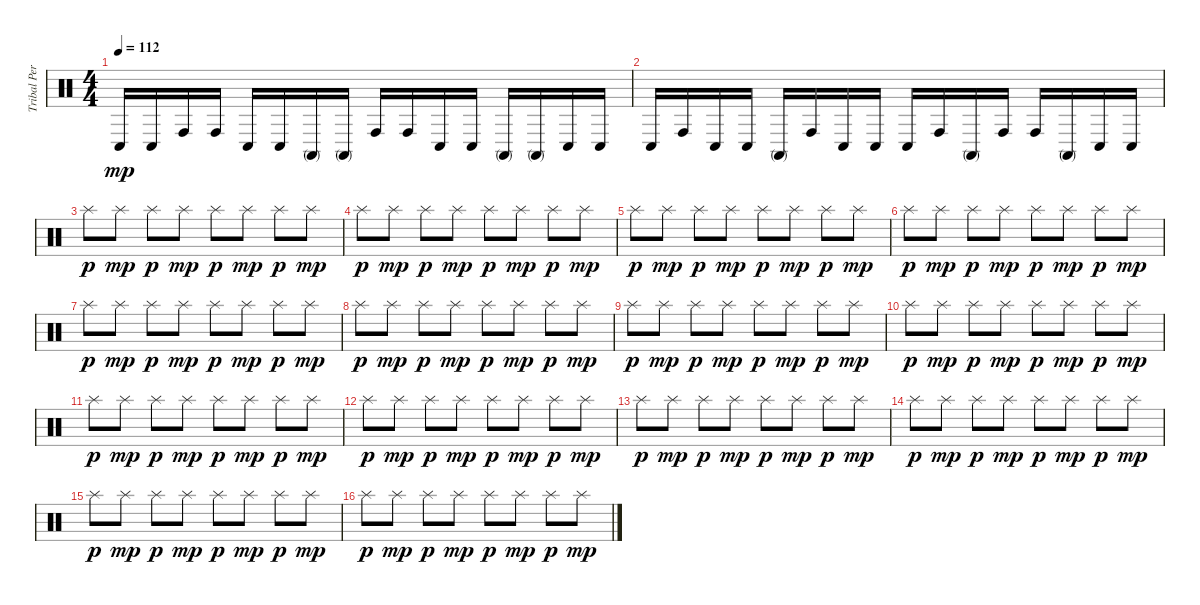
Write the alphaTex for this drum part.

\track ("Tribal Percussion" "Tribal Per") {instrument percussion}
\staff {score}
\articulation defaults
\ts (4 4)
\tempo 112
\clef neutral
\ks c "Conga low (hit)".16{dy mp} "Conga low (hit)".16 "Conga high (hit)".16 "Conga high (hit)".16 "Conga low (hit)".16 "Conga low (hit)".16 "Conga high (mute)".16 "Conga high (mute)".16 "Conga high (hit)".16 "Conga high (hit)".16 "Conga low (hit)".16 "Conga low (hit)".16 "Conga high (mute)".16 "Conga high (mute)".16 "Conga low (hit)".16 "Conga low (hit)".16
|
"Conga low (hit)".16 "Conga high (hit)".16 "Conga low (hit)".16 "Conga low (hit)".16 "Conga high (mute)".16 "Conga high (hit)".16 "Conga low (hit)".16 "Conga low (hit)".16 "Conga low (hit)".16 "Conga high (hit)".16 "Conga high (mute)".16 "Conga high (hit)".16 "Conga high (hit)".16 "Conga high (mute)".16 "Conga low (hit)".16 "Conga low (hit)".16 |
"Splash (hit)".8{dy p} "Splash (hit)".8{dy mp} "Splash (hit)".8{dy p} "Splash (hit)".8{dy mp} "Splash (hit)".8{dy p} "Splash (hit)".8{dy mp} "Splash (hit)".8{dy p} "Splash (hit)".8{dy mp} |
"Splash (hit)".8{dy p} "Splash (hit)".8{dy mp} "Splash (hit)".8{dy p} "Splash (hit)".8{dy mp} "Splash (hit)".8{dy p} "Splash (hit)".8{dy mp} "Splash (hit)".8{dy p} "Splash (hit)".8{dy mp} |
"Splash (hit)".8{dy p} "Splash (hit)".8{dy mp} "Splash (hit)".8{dy p} "Splash (hit)".8{dy mp} "Splash (hit)".8{dy p} "Splash (hit)".8{dy mp} "Splash (hit)".8{dy p} "Splash (hit)".8{dy mp} |
"Splash (hit)".8{dy p} "Splash (hit)".8{dy mp} "Splash (hit)".8{dy p} "Splash (hit)".8{dy mp} "Splash (hit)".8{dy p} "Splash (hit)".8{dy mp} "Splash (hit)".8{dy p} "Splash (hit)".8{dy mp} |
"Splash (hit)".8{dy p} "Splash (hit)".8{dy mp} "Splash (hit)".8{dy p} "Splash (hit)".8{dy mp} "Splash (hit)".8{dy p} "Splash (hit)".8{dy mp} "Splash (hit)".8{dy p} "Splash (hit)".8{dy mp} |
"Splash (hit)".8{dy p} "Splash (hit)".8{dy mp} "Splash (hit)".8{dy p} "Splash (hit)".8{dy mp} "Splash (hit)".8{dy p} "Splash (hit)".8{dy mp} "Splash (hit)".8{dy p} "Splash (hit)".8{dy mp} |
"Splash (hit)".8{dy p} "Splash (hit)".8{dy mp} "Splash (hit)".8{dy p} "Splash (hit)".8{dy mp} "Splash (hit)".8{dy p} "Splash (hit)".8{dy mp} "Splash (hit)".8{dy p} "Splash (hit)".8{dy mp} |
"Splash (hit)".8{dy p} "Splash (hit)".8{dy mp} "Splash (hit)".8{dy p} "Splash (hit)".8{dy mp} "Splash (hit)".8{dy p} "Splash (hit)".8{dy mp} "Splash (hit)".8{dy p} "Splash (hit)".8{dy mp} |
"Splash (hit)".8{dy p} "Splash (hit)".8{dy mp} "Splash (hit)".8{dy p} "Splash (hit)".8{dy mp} "Splash (hit)".8{dy p} "Splash (hit)".8{dy mp} "Splash (hit)".8{dy p} "Splash (hit)".8{dy mp} |
"Splash (hit)".8{dy p} "Splash (hit)".8{dy mp} "Splash (hit)".8{dy p} "Splash (hit)".8{dy mp} "Splash (hit)".8{dy p} "Splash (hit)".8{dy mp} "Splash (hit)".8{dy p} "Splash (hit)".8{dy mp} |
"Splash (hit)".8{dy p} "Splash (hit)".8{dy mp} "Splash (hit)".8{dy p} "Splash (hit)".8{dy mp} "Splash (hit)".8{dy p} "Splash (hit)".8{dy mp} "Splash (hit)".8{dy p} "Splash (hit)".8{dy mp} |
"Splash (hit)".8{dy p} "Splash (hit)".8{dy mp} "Splash (hit)".8{dy p} "Splash (hit)".8{dy mp} "Splash (hit)".8{dy p} "Splash (hit)".8{dy mp} "Splash (hit)".8{dy p} "Splash (hit)".8{dy mp} |
"Splash (hit)".8{dy p} "Splash (hit)".8{dy mp} "Splash (hit)".8{dy p} "Splash (hit)".8{dy mp} "Splash (hit)".8{dy p} "Splash (hit)".8{dy mp} "Splash (hit)".8{dy p} "Splash (hit)".8{dy mp} |
"Splash (hit)".8{dy p} "Splash (hit)".8{dy mp} "Splash (hit)".8{dy p} "Splash (hit)".8{dy mp} "Splash (hit)".8{dy p} "Splash (hit)".8{dy mp} "Splash (hit)".8{dy p} "Splash (hit)".8{dy mp}
